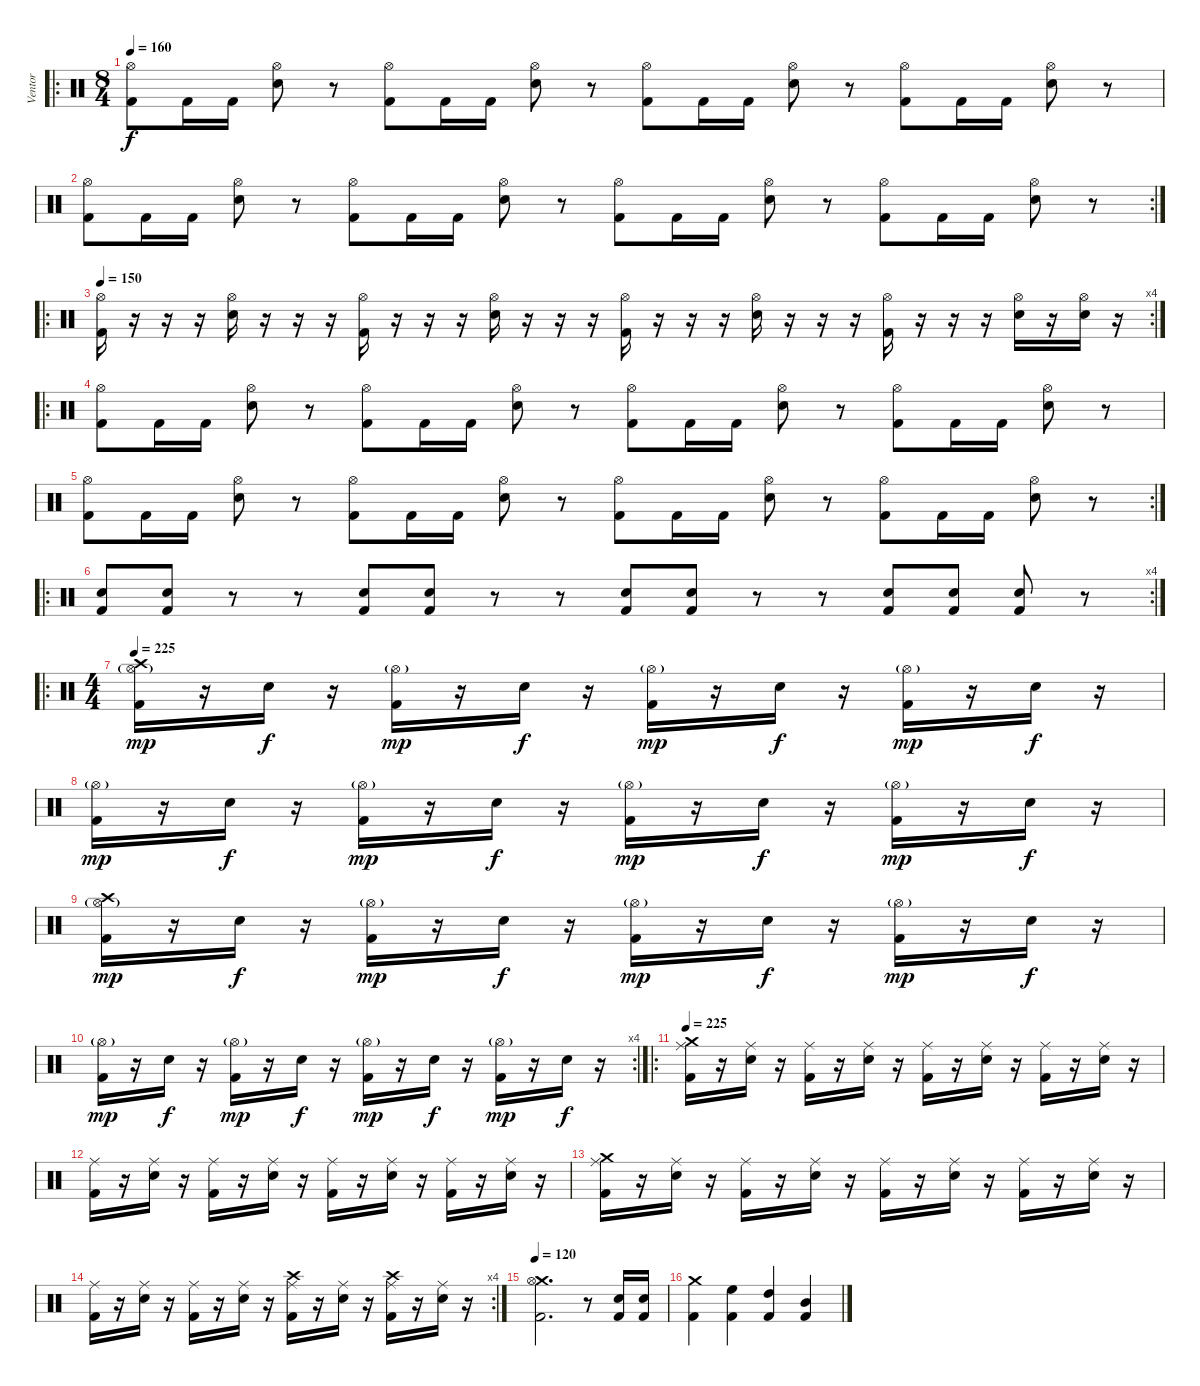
\track ("Ventor" "Ventor") {instrument percussion}
\staff {score}
\articulation defaults
\ro
\ts (8 4)
\tempo 160
\clef neutral
\ks c
("Hi-Hat (open)" "Kick (hit) 2").8{dy f} "Kick (hit) 2".16 "Kick (hit) 2".16 ("Hi-Hat (open)" "Snare (hit) 2").8 r.8 ("Hi-Hat (open)" "Kick (hit) 2").8 "Kick (hit) 2".16 "Kick (hit) 2".16 ("Hi-Hat (open)" "Snare (hit) 2").8 r.8 ("Hi-Hat (open)" "Kick (hit) 2").8 "Kick (hit) 2".16 "Kick (hit) 2".16 ("Hi-Hat (open)" "Snare (hit) 2").8 r.8 ("Hi-Hat (open)" "Kick (hit) 2").8 "Kick (hit) 2".16 "Kick (hit) 2".16 ("Hi-Hat (open)" "Snare (hit) 2").8 r.8 |
\rc 2
("Hi-Hat (open)" "Kick (hit) 2").8 "Kick (hit) 2".16 "Kick (hit) 2".16 ("Hi-Hat (open)" "Snare (hit) 2").8 r.8 ("Hi-Hat (open)" "Kick (hit) 2").8 "Kick (hit) 2".16 "Kick (hit) 2".16 ("Hi-Hat (open)" "Snare (hit) 2").8 r.8 ("Hi-Hat (open)" "Kick (hit) 2").8 "Kick (hit) 2".16 "Kick (hit) 2".16 ("Hi-Hat (open)" "Snare (hit) 2").8 r.8 ("Hi-Hat (open)" "Kick (hit) 2").8 "Kick (hit) 2".16 "Kick (hit) 2".16 ("Hi-Hat (open)" "Snare (hit) 2").8 r.8 |
\ro
\rc 4
\tempo 150
("Hi-Hat (open)" "Kick (hit) 2").16 r.16 r.16 r.16 ("Hi-Hat (open)" "Snare (hit) 2").16 r.16 r.16 r.16 ("Hi-Hat (open)" "Kick (hit) 2").16 r.16 r.16 r.16 ("Hi-Hat (open)" "Snare (hit) 2").16 r.16 r.16 r.16 ("Hi-Hat (open)" "Kick (hit) 2").16 r.16 r.16 r.16 ("Hi-Hat (open)" "Snare (hit) 2").16 r.16 r.16 r.16 ("Hi-Hat (open)" "Kick (hit) 2").16 r.16 r.16 r.16 ("Hi-Hat (open)" "Snare (hit) 2").16 r.16 ("Hi-Hat (open)" "Snare (hit) 2").16 r.16 |
\ro
("Hi-Hat (open)" "Kick (hit) 2").8 "Kick (hit) 2".16 "Kick (hit) 2".16 ("Hi-Hat (open)" "Snare (hit) 2").8 r.8 ("Hi-Hat (open)" "Kick (hit) 2").8 "Kick (hit) 2".16 "Kick (hit) 2".16 ("Hi-Hat (open)" "Snare (hit) 2").8 r.8 ("Hi-Hat (open)" "Kick (hit) 2").8 "Kick (hit) 2".16 "Kick (hit) 2".16 ("Hi-Hat (open)" "Snare (hit) 2").8 r.8 ("Hi-Hat (open)" "Kick (hit) 2").8 "Kick (hit) 2".16 "Kick (hit) 2".16 ("Hi-Hat (open)" "Snare (hit) 2").8 r.8 |
\rc 2
("Hi-Hat (open)" "Kick (hit) 2").8 "Kick (hit) 2".16 "Kick (hit) 2".16 ("Hi-Hat (open)" "Snare (hit) 2").8 r.8 ("Hi-Hat (open)" "Kick (hit) 2").8 "Kick (hit) 2".16 "Kick (hit) 2".16 ("Hi-Hat (open)" "Snare (hit) 2").8 r.8 ("Hi-Hat (open)" "Kick (hit) 2").8 "Kick (hit) 2".16 "Kick (hit) 2".16 ("Hi-Hat (open)" "Snare (hit) 2").8 r.8 ("Hi-Hat (open)" "Kick (hit) 2").8 "Kick (hit) 2".16 "Kick (hit) 2".16 ("Hi-Hat (open)" "Snare (hit) 2").8 r.8 |
\ro
\rc 4
("Snare (hit) 2" "Kick (hit) 2").8 ("Snare (hit) 2" "Kick (hit) 2").8 r.8 r.8 ("Snare (hit) 2" "Kick (hit) 2").8 ("Snare (hit) 2" "Kick (hit) 2").8 r.8 r.8 ("Snare (hit) 2" "Kick (hit) 2").8 ("Snare (hit) 2" "Kick (hit) 2").8 r.8 r.8 ("Snare (hit) 2" "Kick (hit) 2").8 ("Snare (hit) 2" "Kick (hit) 2").8 ("Snare (hit) 2" "Kick (hit) 2").8 r.8 |
\ro
\ts (4 4)
\tempo 225
("Crash high (hit)" "Hi-Hat (open)"{g} "Kick (hit) 2").16{dy mp} r.16 "Snare (hit) 2".16{dy f} r.16 ("Hi-Hat (open)"{g} "Kick (hit) 2").16{dy mp} r.16 "Snare (hit) 2".16{dy f} r.16 ("Hi-Hat (open)"{g} "Kick (hit) 2").16{dy mp} r.16 "Snare (hit) 2".16{dy f} r.16 ("Hi-Hat (open)"{g} "Kick (hit) 2").16{dy mp} r.16 "Snare (hit) 2".16{dy f} r.16 |
("Hi-Hat (open)"{g} "Kick (hit) 2").16{dy mp} r.16 "Snare (hit) 2".16{dy f} r.16 ("Hi-Hat (open)"{g} "Kick (hit) 2").16{dy mp} r.16 "Snare (hit) 2".16{dy f} r.16 ("Hi-Hat (open)"{g} "Kick (hit) 2").16{dy mp} r.16 "Snare (hit) 2".16{dy f} r.16 ("Hi-Hat (open)"{g} "Kick (hit) 2").16{dy mp} r.16 "Snare (hit) 2".16{dy f} r.16 |
("Crash high (hit)" "Hi-Hat (open)"{g} "Kick (hit) 2").16{dy mp} r.16 "Snare (hit) 2".16{dy f} r.16 ("Hi-Hat (open)"{g} "Kick (hit) 2").16{dy mp} r.16 "Snare (hit) 2".16{dy f} r.16 ("Hi-Hat (open)"{g} "Kick (hit) 2").16{dy mp} r.16 "Snare (hit) 2".16{dy f} r.16 ("Hi-Hat (open)"{g} "Kick (hit) 2").16{dy mp} r.16 "Snare (hit) 2".16{dy f} r.16 |
\rc 4
("Hi-Hat (open)"{g} "Kick (hit) 2").16{dy mp} r.16 "Snare (hit) 2".16{dy f} r.16 ("Hi-Hat (open)"{g} "Kick (hit) 2").16{dy mp} r.16 "Snare (hit) 2".16{dy f} r.16 ("Hi-Hat (open)"{g} "Kick (hit) 2").16{dy mp} r.16 "Snare (hit) 2".16{dy f} r.16 ("Hi-Hat (open)"{g} "Kick (hit) 2").16{dy mp} r.16 "Snare (hit) 2".16{dy f} r.16 |
\ro
\tempo 225
("Crash medium (hit)" "Ride (middle)" "Kick (hit) 2").16 r.16 ("Ride (middle)" "Snare (hit) 2").16 r.16 ("Ride (middle)" "Kick (hit) 2").16 r.16 ("Ride (middle)" "Snare (hit) 2").16 r.16 ("Ride (middle)" "Kick (hit) 2").16 r.16 ("Ride (middle)" "Snare (hit) 2").16 r.16 ("Ride (middle)" "Kick (hit) 2").16 r.16 ("Ride (middle)" "Snare (hit) 2").16 r.16 |
("Ride (middle)" "Kick (hit) 2").16 r.16 ("Ride (middle)" "Snare (hit) 2").16 r.16 ("Ride (middle)" "Kick (hit) 2").16 r.16 ("Ride (middle)" "Snare (hit) 2").16 r.16 ("Ride (middle)" "Kick (hit) 2").16 r.16 ("Ride (middle)" "Snare (hit) 2").16 r.16 ("Ride (middle)" "Kick (hit) 2").16 r.16 ("Ride (middle)" "Snare (hit) 2").16 r.16 |
("Crash medium (hit)" "Ride (middle)" "Kick (hit) 2").16 r.16 ("Ride (middle)" "Snare (hit) 2").16 r.16 ("Ride (middle)" "Kick (hit) 2").16 r.16 ("Ride (middle)" "Snare (hit) 2").16 r.16 ("Ride (middle)" "Kick (hit) 2").16 r.16 ("Ride (middle)" "Snare (hit) 2").16 r.16 ("Ride (middle)" "Kick (hit) 2").16 r.16 ("Ride (middle)" "Snare (hit) 2").16 r.16 |
\rc 4
("Ride (middle)" "Kick (hit) 2").16 r.16 ("Ride (middle)" "Snare (hit) 2").16 r.16 ("Ride (middle)" "Kick (hit) 2").16 r.16 ("Ride (middle)" "Snare (hit) 2").16 r.16 ("Crash high (hit)" "Ride (middle)" "Kick (hit) 2").16 r.16 ("Ride (middle)" "Snare (hit) 2").16 r.16 ("Crash high (hit)" "Ride (middle)" "Kick (hit) 2").16 r.16 ("Ride (middle)" "Snare (hit) 2").16 r.16 |
\tempo 120
("Crash medium (hit)" "Hi-Hat (open)" "Kick (hit) 2").2{d} r.8 ("Snare (hit) 2" "Kick (hit) 2").16 ("Snare (hit) 2" "Kick (hit) 2").16 |
("Crash medium (hit)" "Kick (hit) 2").4 ("High Floor Tom (hit)" "Kick (hit) 2").4 ("High Tom (hit)" "Kick (hit) 2").4 ("Mid Tom (hit)" "Kick (hit) 2").4
